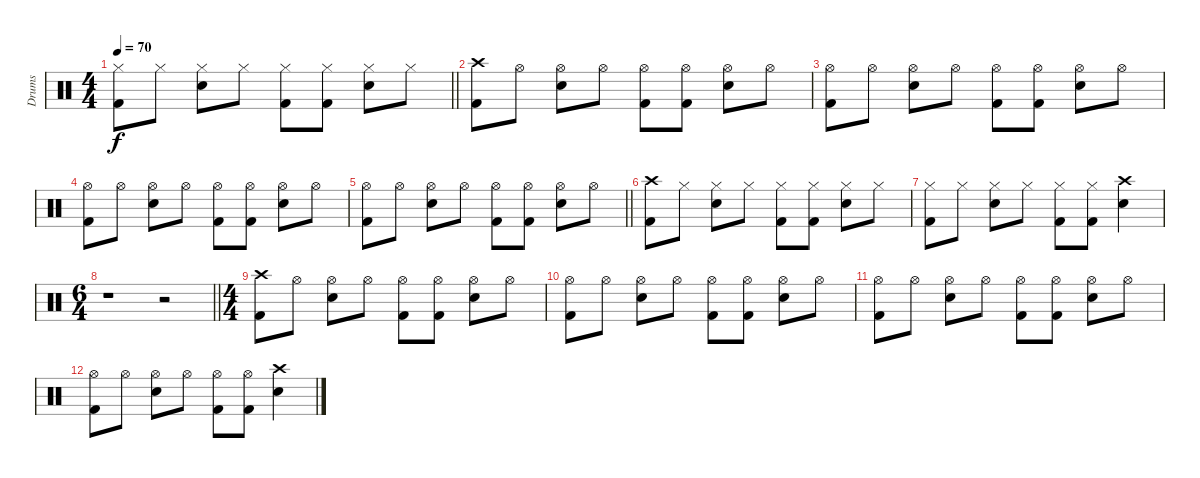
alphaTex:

\track ("Drums" "Drums") {instrument percussion}
\staff {score}
\articulation defaults
\ts (4 4)
\tempo 70
\clef neutral
\barLineRight lightlight
\ks c
("Hi-Hat (closed)" "Kick (hit) 2").8{dy f} "Hi-Hat (closed)".8 ("Hi-Hat (closed)" "Electric Snare (hit)").8 "Hi-Hat (closed)".8 ("Hi-Hat (closed)" "Kick (hit) 2").8 ("Hi-Hat (closed)" "Kick (hit) 2").8 ("Hi-Hat (closed)" "Electric Snare (hit)").8 "Hi-Hat (closed)".8 |
("Crash high (hit)" "Kick (hit) 2").8 "Hi-Hat (open)".8 ("Hi-Hat (open)" "Electric Snare (hit)").8 "Hi-Hat (open)".8 ("Hi-Hat (open)" "Kick (hit) 2").8 ("Hi-Hat (open)" "Kick (hit) 2").8 ("Hi-Hat (open)" "Electric Snare (hit)").8 "Hi-Hat (open)".8 |
("Hi-Hat (open)" "Kick (hit) 2").8 "Hi-Hat (open)".8 ("Hi-Hat (open)" "Electric Snare (hit)").8 "Hi-Hat (open)".8 ("Hi-Hat (open)" "Kick (hit) 2").8 ("Hi-Hat (open)" "Kick (hit) 2").8 ("Hi-Hat (open)" "Electric Snare (hit)").8 "Hi-Hat (open)".8 |
("Hi-Hat (open)" "Kick (hit) 2").8 "Hi-Hat (open)".8 ("Hi-Hat (open)" "Electric Snare (hit)").8 "Hi-Hat (open)".8 ("Hi-Hat (open)" "Kick (hit) 2").8 ("Hi-Hat (open)" "Kick (hit) 2").8 ("Hi-Hat (open)" "Electric Snare (hit)").8 "Hi-Hat (open)".8 |
\barLineRight lightlight
("Hi-Hat (open)" "Kick (hit) 2").8 "Hi-Hat (open)".8 ("Hi-Hat (open)" "Electric Snare (hit)").8 "Hi-Hat (open)".8 ("Hi-Hat (open)" "Kick (hit) 2").8 ("Hi-Hat (open)" "Kick (hit) 2").8 ("Hi-Hat (open)" "Electric Snare (hit)").8 "Hi-Hat (open)".8 |
("Crash high (hit)" "Kick (hit) 2").8 "Hi-Hat (closed)".8 ("Hi-Hat (closed)" "Electric Snare (hit)").8 "Hi-Hat (closed)".8 ("Hi-Hat (closed)" "Kick (hit) 2").8 ("Hi-Hat (closed)" "Kick (hit) 2").8 ("Hi-Hat (closed)" "Electric Snare (hit)").8 "Hi-Hat (closed)".8 |
("Hi-Hat (closed)" "Kick (hit) 2").8 "Hi-Hat (closed)".8 ("Hi-Hat (closed)" "Electric Snare (hit)").8 "Hi-Hat (closed)".8 ("Hi-Hat (closed)" "Kick (hit) 2").8 ("Hi-Hat (closed)" "Kick (hit) 2").8 ("Crash high (hit)" "Electric Snare (hit)").4 |
\ts (6 4)
\barLineRight lightlight
r.1 r.2 |
\ts (4 4)
("Crash high (hit)" "Kick (hit) 2").8 "Hi-Hat (open)".8 ("Hi-Hat (open)" "Electric Snare (hit)").8 "Hi-Hat (open)".8 ("Hi-Hat (open)" "Kick (hit) 2").8 ("Hi-Hat (open)" "Kick (hit) 2").8 ("Hi-Hat (open)" "Electric Snare (hit)").8 "Hi-Hat (open)".8 |
("Hi-Hat (open)" "Kick (hit) 2").8 "Hi-Hat (open)".8 ("Hi-Hat (open)" "Electric Snare (hit)").8 "Hi-Hat (open)".8 ("Hi-Hat (open)" "Kick (hit) 2").8 ("Hi-Hat (open)" "Kick (hit) 2").8 ("Hi-Hat (open)" "Electric Snare (hit)").8 "Hi-Hat (open)".8 |
("Hi-Hat (open)" "Kick (hit) 2").8 "Hi-Hat (open)".8 ("Hi-Hat (open)" "Electric Snare (hit)").8 "Hi-Hat (open)".8 ("Hi-Hat (open)" "Kick (hit) 2").8 ("Hi-Hat (open)" "Kick (hit) 2").8 ("Hi-Hat (open)" "Electric Snare (hit)").8 "Hi-Hat (open)".8 |
("Hi-Hat (open)" "Kick (hit) 2").8 "Hi-Hat (open)".8 ("Hi-Hat (open)" "Electric Snare (hit)").8 "Hi-Hat (open)".8 ("Hi-Hat (open)" "Kick (hit) 2").8 ("Hi-Hat (open)" "Kick (hit) 2").8 ("Crash high (hit)" "Electric Snare (hit)").4
